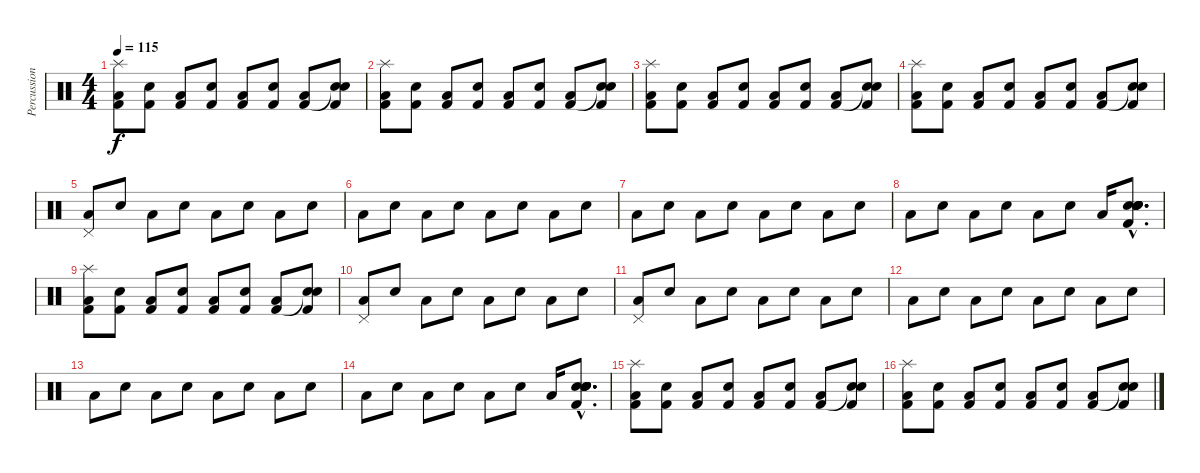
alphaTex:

\track ("Percussions" "Percussion") {instrument percussion}
\staff {score}
\articulation defaults
\ts (4 4)
\tempo 115
\clef neutral
\ks c
("Splash (hit)" "Kick (hit) 2" "Low Floor Tom (hit)").8{dy f} ("Kick (hit) 2" "Electric Snare (hit)").8 ("Kick (hit) 2" "Low Floor Tom (hit)").8 ("Kick (hit) 2" "Electric Snare (hit)").8 ("Kick (hit) 2" "Low Floor Tom (hit)").8 ("Kick (hit) 2" "Electric Snare (hit)").8 ("Kick (hit) 2" "Low Floor Tom (hit)").8 ("Snare (hit)"{t} "Kick (hit) 2" "Electric Snare (hit)").8 |
("Splash (hit)" "Kick (hit) 2" "Low Floor Tom (hit)").8 ("Kick (hit) 2" "Electric Snare (hit)").8 ("Kick (hit) 2" "Low Floor Tom (hit)").8 ("Kick (hit) 2" "Electric Snare (hit)").8 ("Kick (hit) 2" "Low Floor Tom (hit)").8 ("Kick (hit) 2" "Electric Snare (hit)").8 ("Kick (hit) 2" "Low Floor Tom (hit)").8 ("Snare (hit)"{t} "Kick (hit) 2" "Electric Snare (hit)").8 |
("Splash (hit)" "Kick (hit) 2" "Low Floor Tom (hit)").8 ("Kick (hit) 2" "Electric Snare (hit)").8 ("Kick (hit) 2" "Low Floor Tom (hit)").8 ("Kick (hit) 2" "Electric Snare (hit)").8 ("Kick (hit) 2" "Low Floor Tom (hit)").8 ("Kick (hit) 2" "Electric Snare (hit)").8 ("Kick (hit) 2" "Low Floor Tom (hit)").8 ("Snare (hit)"{t} "Kick (hit) 2" "Electric Snare (hit)").8 |
("Splash (hit)" "Kick (hit) 2" "Low Floor Tom (hit)").8 ("Kick (hit) 2" "Electric Snare (hit)").8 ("Kick (hit) 2" "Low Floor Tom (hit)").8 ("Kick (hit) 2" "Electric Snare (hit)").8 ("Kick (hit) 2" "Low Floor Tom (hit)").8 ("Kick (hit) 2" "Electric Snare (hit)").8 ("Kick (hit) 2" "Low Floor Tom (hit)").8 ("Snare (hit)"{t} "Kick (hit) 2" "Electric Snare (hit)").8 |
("Low Floor Tom (hit)" "Pedal Hi-Hat (hit)").8 "Electric Snare (hit)".8 "Low Floor Tom (hit)".8 "Electric Snare (hit)".8 "Low Floor Tom (hit)".8 "Electric Snare (hit)".8 "Low Floor Tom (hit)".8 "Electric Snare (hit)".8 |
"Low Floor Tom (hit)".8 "Electric Snare (hit)".8 "Low Floor Tom (hit)".8 "Electric Snare (hit)".8 "Low Floor Tom (hit)".8 "Electric Snare (hit)".8 "Low Floor Tom (hit)".8 "Electric Snare (hit)".8 |
"Low Floor Tom (hit)".8 "Electric Snare (hit)".8 "Low Floor Tom (hit)".8 "Electric Snare (hit)".8 "Low Floor Tom (hit)".8 "Electric Snare (hit)".8 "Low Floor Tom (hit)".8 "Electric Snare (hit)".8 |
"Low Floor Tom (hit)".8 "Electric Snare (hit)".8 "Low Floor Tom (hit)".8 "Electric Snare (hit)".8 "Low Floor Tom (hit)".8 "Electric Snare (hit)".8 "Low Floor Tom (hit)".16 ("Electric Snare (hit)"{hac} "Snare (hit) 2"{hac} "Electric Snare (hit)"{hac} "Electric Snare (hit)"{hac} "Snare (hit) 2"{hac} "Kick (hit) 2"{hac}).8{d} |
("Splash (hit)" "Kick (hit) 2" "Low Floor Tom (hit)").8 ("Kick (hit) 2" "Electric Snare (hit)").8 ("Kick (hit) 2" "Low Floor Tom (hit)").8 ("Kick (hit) 2" "Electric Snare (hit)").8 ("Kick (hit) 2" "Low Floor Tom (hit)").8 ("Kick (hit) 2" "Electric Snare (hit)").8 ("Kick (hit) 2" "Low Floor Tom (hit)").8 ("Snare (hit)"{t} "Kick (hit) 2" "Electric Snare (hit)").8 |
("Low Floor Tom (hit)" "Pedal Hi-Hat (hit)").8 "Electric Snare (hit)".8 "Low Floor Tom (hit)".8 "Electric Snare (hit)".8 "Low Floor Tom (hit)".8 "Electric Snare (hit)".8 "Low Floor Tom (hit)".8 "Electric Snare (hit)".8 |
("Low Floor Tom (hit)" "Pedal Hi-Hat (hit)").8 "Electric Snare (hit)".8 "Low Floor Tom (hit)".8 "Electric Snare (hit)".8 "Low Floor Tom (hit)".8 "Electric Snare (hit)".8 "Low Floor Tom (hit)".8 "Electric Snare (hit)".8 |
"Low Floor Tom (hit)".8 "Electric Snare (hit)".8 "Low Floor Tom (hit)".8 "Electric Snare (hit)".8 "Low Floor Tom (hit)".8 "Electric Snare (hit)".8 "Low Floor Tom (hit)".8 "Electric Snare (hit)".8 |
"Low Floor Tom (hit)".8 "Electric Snare (hit)".8 "Low Floor Tom (hit)".8 "Electric Snare (hit)".8 "Low Floor Tom (hit)".8 "Electric Snare (hit)".8 "Low Floor Tom (hit)".8 "Electric Snare (hit)".8 |
"Low Floor Tom (hit)".8 "Electric Snare (hit)".8 "Low Floor Tom (hit)".8 "Electric Snare (hit)".8 "Low Floor Tom (hit)".8 "Electric Snare (hit)".8 "Low Floor Tom (hit)".16 ("Electric Snare (hit)"{hac} "Snare (hit) 2"{hac} "Electric Snare (hit)"{hac} "Electric Snare (hit)"{hac} "Snare (hit) 2"{hac} "Kick (hit) 2"{hac}).8{d} |
("Splash (hit)" "Kick (hit) 2" "Low Floor Tom (hit)").8 ("Kick (hit) 2" "Electric Snare (hit)").8 ("Kick (hit) 2" "Low Floor Tom (hit)").8 ("Kick (hit) 2" "Electric Snare (hit)").8 ("Kick (hit) 2" "Low Floor Tom (hit)").8 ("Kick (hit) 2" "Electric Snare (hit)").8 ("Kick (hit) 2" "Low Floor Tom (hit)").8 ("Snare (hit)"{t} "Kick (hit) 2" "Electric Snare (hit)").8 |
("Splash (hit)" "Kick (hit) 2" "Low Floor Tom (hit)").8 ("Kick (hit) 2" "Electric Snare (hit)").8 ("Kick (hit) 2" "Low Floor Tom (hit)").8 ("Kick (hit) 2" "Electric Snare (hit)").8 ("Kick (hit) 2" "Low Floor Tom (hit)").8 ("Kick (hit) 2" "Electric Snare (hit)").8 ("Kick (hit) 2" "Low Floor Tom (hit)").8 ("Snare (hit)"{t} "Kick (hit) 2" "Electric Snare (hit)").8
